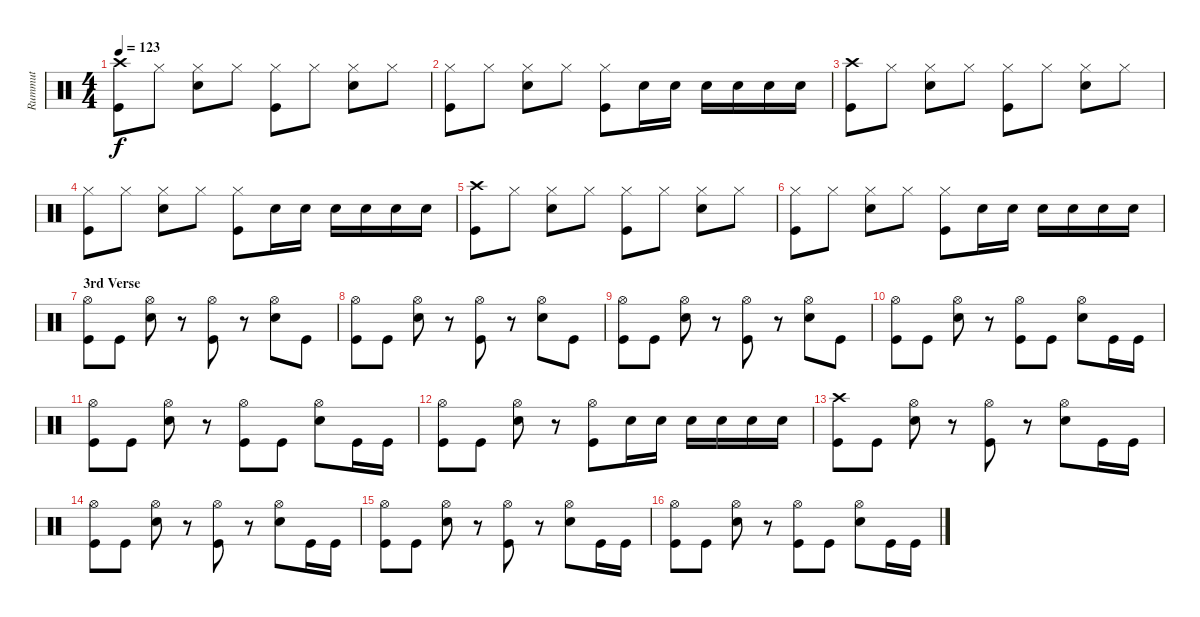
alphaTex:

\track ("Rummut" "Rummut") {instrument percussion}
\staff {score}
\articulation defaults
\ts (4 4)
\tempo 123
\clef neutral
\ks c
("Crash high (hit)" "Kick (hit)").8{dy f} "Hi-Hat (closed)".8 ("Hi-Hat (closed)" "Snare (hit) 2").8 "Hi-Hat (closed)".8 ("Hi-Hat (closed)" "Kick (hit)").8 "Hi-Hat (closed)".8 ("Hi-Hat (closed)" "Snare (hit) 2").8 "Hi-Hat (closed)".8 |
("Hi-Hat (closed)" "Kick (hit)").8 "Hi-Hat (closed)".8 ("Hi-Hat (closed)" "Snare (hit) 2").8 "Hi-Hat (closed)".8 ("Hi-Hat (closed)" "Kick (hit)").8 "Snare (hit) 2".16 "Snare (hit) 2".16 "Snare (hit) 2".16 "Snare (hit) 2".16 "Snare (hit) 2".16 "Snare (hit) 2".16 |
("Crash high (hit)" "Kick (hit)").8 "Hi-Hat (closed)".8 ("Hi-Hat (closed)" "Snare (hit) 2").8 "Hi-Hat (closed)".8 ("Hi-Hat (closed)" "Kick (hit)").8 "Hi-Hat (closed)".8 ("Hi-Hat (closed)" "Snare (hit) 2").8 "Hi-Hat (closed)".8 |
("Hi-Hat (closed)" "Kick (hit)").8 "Hi-Hat (closed)".8 ("Hi-Hat (closed)" "Snare (hit) 2").8 "Hi-Hat (closed)".8 ("Hi-Hat (closed)" "Kick (hit)").8 "Snare (hit) 2".16 "Snare (hit) 2".16 "Snare (hit) 2".16 "Snare (hit) 2".16 "Snare (hit) 2".16 "Snare (hit) 2".16 |
("Crash high (hit)" "Kick (hit)").8 "Hi-Hat (closed)".8 ("Hi-Hat (closed)" "Snare (hit) 2").8 "Hi-Hat (closed)".8 ("Hi-Hat (closed)" "Kick (hit)").8 "Hi-Hat (closed)".8 ("Hi-Hat (closed)" "Snare (hit) 2").8 "Hi-Hat (closed)".8 |
("Hi-Hat (closed)" "Kick (hit)").8 "Hi-Hat (closed)".8 ("Hi-Hat (closed)" "Snare (hit) 2").8 "Hi-Hat (closed)".8 ("Hi-Hat (closed)" "Kick (hit)").8 "Snare (hit) 2".16 "Snare (hit) 2".16 "Snare (hit) 2".16 "Snare (hit) 2".16 "Snare (hit) 2".16 "Snare (hit) 2".16 |
\section ("" "3rd Verse")
("Hi-Hat (open)" "Kick (hit)").8 "Kick (hit)".8 ("Hi-Hat (open)" "Snare (hit) 2").8 r.8 ("Hi-Hat (open)" "Kick (hit)").8 r.8 ("Hi-Hat (open)" "Snare (hit) 2").8 "Kick (hit)".8 |
("Hi-Hat (open)" "Kick (hit)").8 "Kick (hit)".8 ("Hi-Hat (open)" "Snare (hit) 2").8 r.8 ("Hi-Hat (open)" "Kick (hit)").8 r.8 ("Hi-Hat (open)" "Snare (hit) 2").8 "Kick (hit)".8 |
("Hi-Hat (open)" "Kick (hit)").8 "Kick (hit)".8 ("Hi-Hat (open)" "Snare (hit) 2").8 r.8 ("Hi-Hat (open)" "Kick (hit)").8 r.8 ("Hi-Hat (open)" "Snare (hit) 2").8 "Kick (hit)".8 |
("Hi-Hat (open)" "Kick (hit)").8 "Kick (hit)".8 ("Hi-Hat (open)" "Snare (hit) 2").8 r.8 ("Hi-Hat (open)" "Kick (hit)").8 "Kick (hit)".8 ("Hi-Hat (open)" "Snare (hit) 2").8 "Kick (hit)".16 "Kick (hit)".16 |
("Hi-Hat (open)" "Kick (hit)").8 "Kick (hit)".8 ("Hi-Hat (open)" "Snare (hit) 2").8 r.8 ("Hi-Hat (open)" "Kick (hit)").8 "Kick (hit)".8 ("Hi-Hat (open)" "Snare (hit) 2").8 "Kick (hit)".16 "Kick (hit)".16 |
("Hi-Hat (open)" "Kick (hit)").8 "Kick (hit)".8 ("Hi-Hat (open)" "Snare (hit) 2").8 r.8 ("Hi-Hat (open)" "Kick (hit)").8 "Snare (hit) 2".16 "Snare (hit) 2".16 "Snare (hit) 2".16 "Snare (hit) 2".16 "Snare (hit) 2".16 "Snare (hit) 2".16 |
("Crash high (hit)" "Kick (hit)").8 "Kick (hit)".8 ("Hi-Hat (open)" "Snare (hit) 2").8 r.8 ("Hi-Hat (open)" "Kick (hit)").8 r.8 ("Hi-Hat (open)" "Snare (hit) 2").8 "Kick (hit)".16 "Kick (hit)".16 |
("Hi-Hat (open)" "Kick (hit)").8 "Kick (hit)".8 ("Hi-Hat (open)" "Snare (hit) 2").8 r.8 ("Hi-Hat (open)" "Kick (hit)").8 r.8 ("Hi-Hat (open)" "Snare (hit) 2").8 "Kick (hit)".16 "Kick (hit)".16 |
("Hi-Hat (open)" "Kick (hit)").8 "Kick (hit)".8 ("Hi-Hat (open)" "Snare (hit) 2").8 r.8 ("Hi-Hat (open)" "Kick (hit)").8 r.8 ("Hi-Hat (open)" "Snare (hit) 2").8 "Kick (hit)".16 "Kick (hit)".16 |
("Hi-Hat (open)" "Kick (hit)").8 "Kick (hit)".8 ("Hi-Hat (open)" "Snare (hit) 2").8 r.8 ("Hi-Hat (open)" "Kick (hit)").8 "Kick (hit)".8 ("Hi-Hat (open)" "Snare (hit) 2").8 "Kick (hit)".16 "Kick (hit)".16
